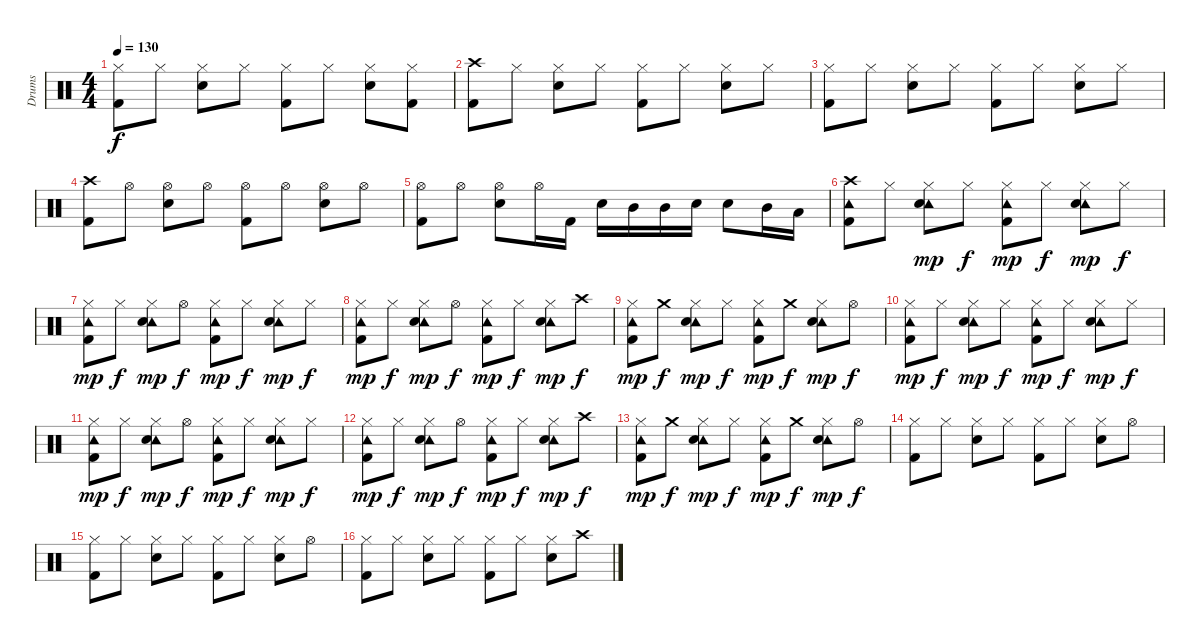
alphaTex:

\track ("Drums" "Drums") {instrument percussion}
\staff {score}
\articulation defaults
\ts (4 4)
\tempo 130
\clef neutral
\ks c
("Hi-Hat (closed)" "Kick (hit) 2").8{dy f} "Hi-Hat (closed)".8 ("Hi-Hat (closed)" "Electric Snare (hit)").8 "Hi-Hat (closed)".8 ("Hi-Hat (closed)" "Kick (hit) 2").8 "Hi-Hat (closed)".8 ("Hi-Hat (closed)" "Electric Snare (hit)").8 ("Hi-Hat (closed)" "Kick (hit) 2").8 |
("Crash high (hit)" "Kick (hit) 2").8 "Hi-Hat (closed)".8 ("Hi-Hat (closed)" "Electric Snare (hit)").8 "Hi-Hat (closed)".8 ("Hi-Hat (closed)" "Kick (hit) 2").8 "Hi-Hat (closed)".8 ("Hi-Hat (closed)" "Electric Snare (hit)").8 "Hi-Hat (closed)".8 |
("Hi-Hat (closed)" "Kick (hit) 2").8 "Hi-Hat (closed)".8 ("Hi-Hat (closed)" "Electric Snare (hit)").8 "Hi-Hat (closed)".8 ("Hi-Hat (closed)" "Kick (hit) 2").8 "Hi-Hat (closed)".8 ("Hi-Hat (closed)" "Electric Snare (hit)").8 "Hi-Hat (closed)".8 |
("Crash high (hit)" "Kick (hit) 2").8 "Hi-Hat (open)".8 ("Hi-Hat (open)" "Electric Snare (hit)").8 "Hi-Hat (open)".8 ("Hi-Hat (open)" "Kick (hit) 2").8 "Hi-Hat (open)".8 ("Hi-Hat (open)" "Electric Snare (hit)").8 "Hi-Hat (open)".8 |
("Hi-Hat (open)" "Kick (hit) 2").8 "Hi-Hat (open)".8 ("Hi-Hat (open)" "Electric Snare (hit)").8 "Hi-Hat (open)".16 "Kick (hit) 2".16 "Electric Snare (hit)".16 "Mid Tom (hit)".16 "Mid Tom (hit)".16 "Electric Snare (hit)".16 "Electric Snare (hit)".8 "Mid Tom (hit)".16 "Low Tom (hit)".16 |
("Crash high (hit)" "Tambourine (hit)" "Kick (hit) 2").8 "Hi-Hat (closed)".8 ("Hi-Hat (closed)" "Tambourine (hit)" "Electric Snare (hit)").8{dy mp} "Hi-Hat (closed)".8{dy f} ("Hi-Hat (closed)" "Tambourine (hit)" "Kick (hit) 2").8{dy mp} "Hi-Hat (closed)".8{dy f} ("Hi-Hat (closed)" "Tambourine (hit)" "Electric Snare (hit)").8{dy mp} "Hi-Hat (closed)".8{dy f} |
("Hi-Hat (closed)" "Tambourine (hit)" "Kick (hit) 2").8{dy mp} "Hi-Hat (closed)".8{dy f} ("Hi-Hat (closed)" "Tambourine (hit)" "Electric Snare (hit)").8{dy mp} "Hi-Hat (open)".8{dy f} ("Hi-Hat (closed)" "Tambourine (hit)" "Kick (hit) 2").8{dy mp} "Hi-Hat (closed)".8{dy f} ("Hi-Hat (closed)" "Tambourine (hit)" "Electric Snare (hit)").8{dy mp} "Hi-Hat (closed)".8{dy f} |
("Hi-Hat (closed)" "Tambourine (hit)" "Kick (hit) 2").8{dy mp} "Hi-Hat (closed)".8{dy f} ("Hi-Hat (closed)" "Tambourine (hit)" "Electric Snare (hit)").8{dy mp} "Hi-Hat (open)".8{dy f} ("Hi-Hat (closed)" "Tambourine (hit)" "Kick (hit) 2").8{dy mp} "Hi-Hat (closed)".8{dy f} ("Hi-Hat (closed)" "Tambourine (hit)" "Electric Snare (hit)").8{dy mp} "Crash high (hit)".8{dy f} |
("Hi-Hat (closed)" "Tambourine (hit)" "Kick (hit) 2").8{dy mp} "Crash medium (hit)".8{dy f} ("Hi-Hat (closed)" "Tambourine (hit)" "Electric Snare (hit)").8{dy mp} "Hi-Hat (closed)".8{dy f} ("Hi-Hat (closed)" "Tambourine (hit)" "Kick (hit) 2").8{dy mp} "Crash medium (hit)".8{dy f} ("Hi-Hat (closed)" "Tambourine (hit)" "Electric Snare (hit)").8{dy mp} "Hi-Hat (open)".8{dy f} |
("Hi-Hat (closed)" "Tambourine (hit)" "Kick (hit) 2").8{dy mp} "Hi-Hat (closed)".8{dy f} ("Hi-Hat (closed)" "Tambourine (hit)" "Electric Snare (hit)").8{dy mp} "Hi-Hat (closed)".8{dy f} ("Hi-Hat (closed)" "Tambourine (hit)" "Kick (hit) 2").8{dy mp} "Hi-Hat (closed)".8{dy f} ("Hi-Hat (closed)" "Tambourine (hit)" "Electric Snare (hit)").8{dy mp} "Hi-Hat (closed)".8{dy f} |
("Hi-Hat (closed)" "Tambourine (hit)" "Kick (hit) 2").8{dy mp} "Hi-Hat (closed)".8{dy f} ("Hi-Hat (closed)" "Tambourine (hit)" "Electric Snare (hit)").8{dy mp} "Hi-Hat (open)".8{dy f} ("Hi-Hat (closed)" "Tambourine (hit)" "Kick (hit) 2").8{dy mp} "Hi-Hat (closed)".8{dy f} ("Hi-Hat (closed)" "Tambourine (hit)" "Electric Snare (hit)").8{dy mp} "Hi-Hat (closed)".8{dy f} |
("Hi-Hat (closed)" "Tambourine (hit)" "Kick (hit) 2").8{dy mp} "Hi-Hat (closed)".8{dy f} ("Hi-Hat (closed)" "Tambourine (hit)" "Electric Snare (hit)").8{dy mp} "Hi-Hat (open)".8{dy f} ("Hi-Hat (closed)" "Tambourine (hit)" "Kick (hit) 2").8{dy mp} "Hi-Hat (closed)".8{dy f} ("Hi-Hat (closed)" "Tambourine (hit)" "Electric Snare (hit)").8{dy mp} "Crash high (hit)".8{dy f} |
("Hi-Hat (closed)" "Tambourine (hit)" "Kick (hit) 2").8{dy mp} "Crash medium (hit)".8{dy f} ("Hi-Hat (closed)" "Tambourine (hit)" "Electric Snare (hit)").8{dy mp} "Hi-Hat (closed)".8{dy f} ("Hi-Hat (closed)" "Tambourine (hit)" "Kick (hit) 2").8{dy mp} "Crash medium (hit)".8{dy f} ("Hi-Hat (closed)" "Tambourine (hit)" "Electric Snare (hit)").8{dy mp} "Hi-Hat (open)".8{dy f} |
("Hi-Hat (closed)" "Kick (hit) 2").8 "Hi-Hat (closed)".8 ("Hi-Hat (closed)" "Electric Snare (hit)").8 "Hi-Hat (closed)".8 ("Hi-Hat (closed)" "Kick (hit) 2").8 "Hi-Hat (closed)".8 ("Hi-Hat (closed)" "Electric Snare (hit)").8 "Hi-Hat (open)".8 |
("Hi-Hat (closed)" "Kick (hit) 2").8 "Hi-Hat (closed)".8 ("Hi-Hat (closed)" "Electric Snare (hit)").8 "Hi-Hat (closed)".8 ("Hi-Hat (closed)" "Kick (hit) 2").8 "Hi-Hat (closed)".8 ("Hi-Hat (closed)" "Electric Snare (hit)").8 "Hi-Hat (open)".8 |
("Hi-Hat (closed)" "Kick (hit) 2").8 "Hi-Hat (closed)".8 ("Hi-Hat (closed)" "Electric Snare (hit)").8 "Hi-Hat (closed)".8 ("Hi-Hat (closed)" "Kick (hit) 2").8 "Hi-Hat (closed)".8 ("Hi-Hat (closed)" "Electric Snare (hit)").8 "Crash high (hit)".8
